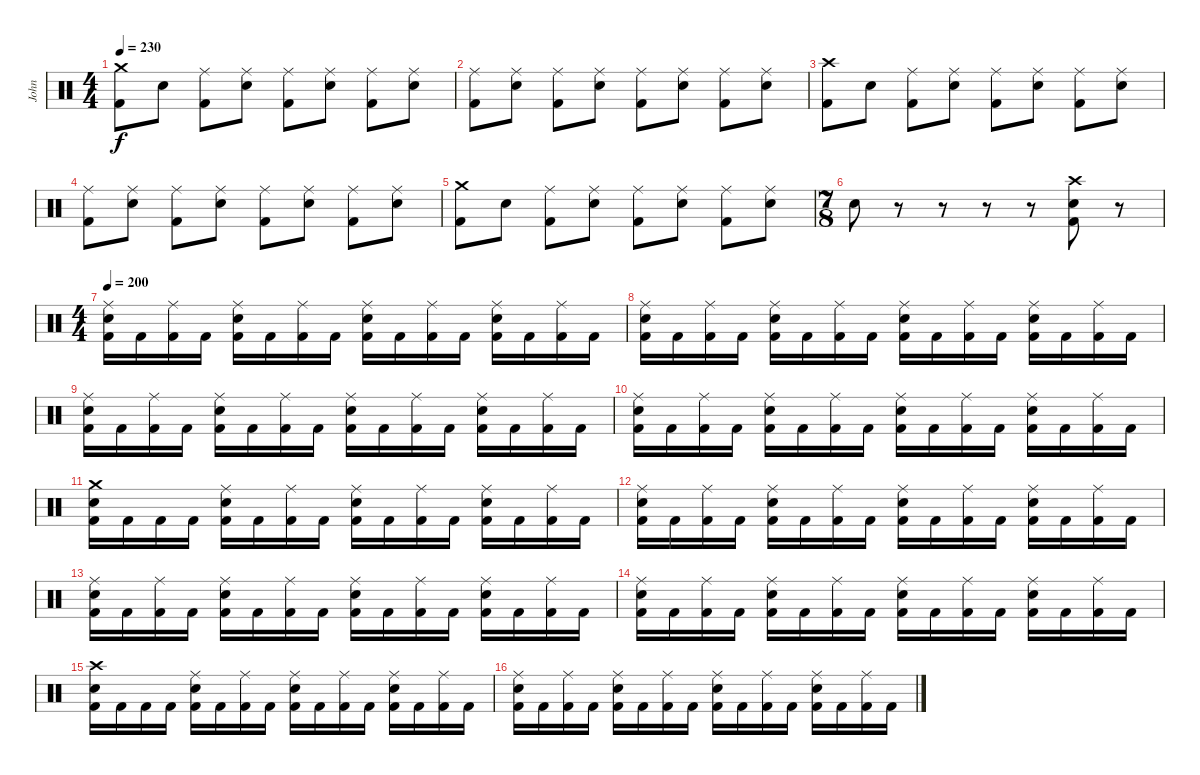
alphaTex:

\track ("John" "John") {instrument percussion}
\staff {score}
\articulation defaults
\ts (4 4)
\tempo 230
\clef neutral
\ks c
("Crash medium (hit)" "Kick (hit) 2").8{dy f} "Electric Snare (hit)".8 ("Ride (middle)" "Kick (hit) 2").8 ("Ride (middle)" "Electric Snare (hit)").8 ("Ride (middle)" "Kick (hit) 2").8 ("Ride (middle)" "Electric Snare (hit)").8 ("Ride (middle)" "Kick (hit) 2").8 ("Ride (middle)" "Electric Snare (hit)").8 |
("Ride (middle)" "Kick (hit) 2").8 ("Ride (middle)" "Electric Snare (hit)").8 ("Ride (middle)" "Kick (hit) 2").8 ("Ride (middle)" "Electric Snare (hit)").8 ("Ride (middle)" "Kick (hit) 2").8 ("Ride (middle)" "Electric Snare (hit)").8 ("Ride (middle)" "Kick (hit) 2").8 ("Ride (middle)" "Electric Snare (hit)").8 |
("Crash high (hit)" "Kick (hit) 2").8 "Electric Snare (hit)".8 ("Ride (middle)" "Kick (hit) 2").8 ("Ride (middle)" "Electric Snare (hit)").8 ("Ride (middle)" "Kick (hit) 2").8 ("Ride (middle)" "Electric Snare (hit)").8 ("Ride (middle)" "Kick (hit) 2").8 ("Ride (middle)" "Electric Snare (hit)").8 |
("Ride (middle)" "Kick (hit) 2").8 ("Ride (middle)" "Electric Snare (hit)").8 ("Ride (middle)" "Kick (hit) 2").8 ("Ride (middle)" "Electric Snare (hit)").8 ("Ride (middle)" "Kick (hit) 2").8 ("Ride (middle)" "Electric Snare (hit)").8 ("Ride (middle)" "Kick (hit) 2").8 ("Ride (middle)" "Electric Snare (hit)").8 |
("Crash medium (hit)" "Kick (hit) 2").8 "Electric Snare (hit)".8 ("Ride (middle)" "Kick (hit) 2").8 ("Ride (middle)" "Electric Snare (hit)").8 ("Ride (middle)" "Kick (hit) 2").8 ("Ride (middle)" "Electric Snare (hit)").8 ("Ride (middle)" "Kick (hit) 2").8 ("Ride (middle)" "Electric Snare (hit)").8 |
\ts (7 8)
"Electric Snare (hit)".8 r.8 r.8 r.8 r.8 ("Crash high (hit)" "Electric Snare (hit)" "Kick (hit) 2").8 r.8 |
\ts (4 4)
\tempo 200
("Ride (middle)" "Electric Snare (hit)" "Kick (hit) 2").16 "Kick (hit) 2".16 ("Ride (middle)" "Kick (hit) 2").16 "Kick (hit) 2".16 ("Ride (middle)" "Electric Snare (hit)" "Kick (hit) 2").16 "Kick (hit) 2".16 ("Ride (middle)" "Kick (hit) 2").16 "Kick (hit) 2".16 ("Ride (middle)" "Electric Snare (hit)" "Kick (hit) 2").16 "Kick (hit) 2".16 ("Ride (middle)" "Kick (hit) 2").16 "Kick (hit) 2".16 ("Ride (middle)" "Electric Snare (hit)" "Kick (hit) 2").16 "Kick (hit) 2".16 ("Ride (middle)" "Kick (hit) 2").16 "Kick (hit) 2".16 |
("Ride (middle)" "Electric Snare (hit)" "Kick (hit) 2").16 "Kick (hit) 2".16 ("Ride (middle)" "Kick (hit) 2").16 "Kick (hit) 2".16 ("Ride (middle)" "Electric Snare (hit)" "Kick (hit) 2").16 "Kick (hit) 2".16 ("Ride (middle)" "Kick (hit) 2").16 "Kick (hit) 2".16 ("Ride (middle)" "Electric Snare (hit)" "Kick (hit) 2").16 "Kick (hit) 2".16 ("Ride (middle)" "Kick (hit) 2").16 "Kick (hit) 2".16 ("Ride (middle)" "Electric Snare (hit)" "Kick (hit) 2").16 "Kick (hit) 2".16 ("Ride (middle)" "Kick (hit) 2").16 "Kick (hit) 2".16 |
("Ride (middle)" "Electric Snare (hit)" "Kick (hit) 2").16 "Kick (hit) 2".16 ("Ride (middle)" "Kick (hit) 2").16 "Kick (hit) 2".16 ("Ride (middle)" "Electric Snare (hit)" "Kick (hit) 2").16 "Kick (hit) 2".16 ("Ride (middle)" "Kick (hit) 2").16 "Kick (hit) 2".16 ("Ride (middle)" "Electric Snare (hit)" "Kick (hit) 2").16 "Kick (hit) 2".16 ("Ride (middle)" "Kick (hit) 2").16 "Kick (hit) 2".16 ("Ride (middle)" "Electric Snare (hit)" "Kick (hit) 2").16 "Kick (hit) 2".16 ("Ride (middle)" "Kick (hit) 2").16 "Kick (hit) 2".16 |
("Ride (middle)" "Electric Snare (hit)" "Kick (hit) 2").16 "Kick (hit) 2".16 ("Ride (middle)" "Kick (hit) 2").16 "Kick (hit) 2".16 ("Ride (middle)" "Electric Snare (hit)" "Kick (hit) 2").16 "Kick (hit) 2".16 ("Ride (middle)" "Kick (hit) 2").16 "Kick (hit) 2".16 ("Ride (middle)" "Electric Snare (hit)" "Kick (hit) 2").16 "Kick (hit) 2".16 ("Ride (middle)" "Kick (hit) 2").16 "Kick (hit) 2".16 ("Ride (middle)" "Electric Snare (hit)" "Kick (hit) 2").16 "Kick (hit) 2".16 ("Ride (middle)" "Kick (hit) 2").16 "Kick (hit) 2".16 |
("Crash medium (hit)" "Electric Snare (hit)" "Kick (hit) 2").16 "Kick (hit) 2".16 "Kick (hit) 2".16 "Kick (hit) 2".16 ("Ride (middle)" "Electric Snare (hit)" "Kick (hit) 2").16 "Kick (hit) 2".16 ("Ride (middle)" "Kick (hit) 2").16 "Kick (hit) 2".16 ("Ride (middle)" "Electric Snare (hit)" "Kick (hit) 2").16 "Kick (hit) 2".16 ("Ride (middle)" "Kick (hit) 2").16 "Kick (hit) 2".16 ("Ride (middle)" "Electric Snare (hit)" "Kick (hit) 2").16 "Kick (hit) 2".16 ("Ride (middle)" "Kick (hit) 2").16 "Kick (hit) 2".16 |
("Ride (middle)" "Electric Snare (hit)" "Kick (hit) 2").16 "Kick (hit) 2".16 ("Ride (middle)" "Kick (hit) 2").16 "Kick (hit) 2".16 ("Ride (middle)" "Electric Snare (hit)" "Kick (hit) 2").16 "Kick (hit) 2".16 ("Ride (middle)" "Kick (hit) 2").16 "Kick (hit) 2".16 ("Ride (middle)" "Electric Snare (hit)" "Kick (hit) 2").16 "Kick (hit) 2".16 ("Ride (middle)" "Kick (hit) 2").16 "Kick (hit) 2".16 ("Ride (middle)" "Electric Snare (hit)" "Kick (hit) 2").16 "Kick (hit) 2".16 ("Ride (middle)" "Kick (hit) 2").16 "Kick (hit) 2".16 |
("Ride (middle)" "Electric Snare (hit)" "Kick (hit) 2").16 "Kick (hit) 2".16 ("Ride (middle)" "Kick (hit) 2").16 "Kick (hit) 2".16 ("Ride (middle)" "Electric Snare (hit)" "Kick (hit) 2").16 "Kick (hit) 2".16 ("Ride (middle)" "Kick (hit) 2").16 "Kick (hit) 2".16 ("Ride (middle)" "Electric Snare (hit)" "Kick (hit) 2").16 "Kick (hit) 2".16 ("Ride (middle)" "Kick (hit) 2").16 "Kick (hit) 2".16 ("Ride (middle)" "Electric Snare (hit)" "Kick (hit) 2").16 "Kick (hit) 2".16 ("Ride (middle)" "Kick (hit) 2").16 "Kick (hit) 2".16 |
("Ride (middle)" "Electric Snare (hit)" "Kick (hit) 2").16 "Kick (hit) 2".16 ("Ride (middle)" "Kick (hit) 2").16 "Kick (hit) 2".16 ("Ride (middle)" "Electric Snare (hit)" "Kick (hit) 2").16 "Kick (hit) 2".16 ("Ride (middle)" "Kick (hit) 2").16 "Kick (hit) 2".16 ("Ride (middle)" "Electric Snare (hit)" "Kick (hit) 2").16 "Kick (hit) 2".16 ("Ride (middle)" "Kick (hit) 2").16 "Kick (hit) 2".16 ("Ride (middle)" "Electric Snare (hit)" "Kick (hit) 2").16 "Kick (hit) 2".16 ("Ride (middle)" "Kick (hit) 2").16 "Kick (hit) 2".16 |
("Crash high (hit)" "Electric Snare (hit)" "Kick (hit) 2").16 "Kick (hit) 2".16 "Kick (hit) 2".16 "Kick (hit) 2".16 ("Ride (middle)" "Electric Snare (hit)" "Kick (hit) 2").16 "Kick (hit) 2".16 ("Ride (middle)" "Kick (hit) 2").16 "Kick (hit) 2".16 ("Ride (middle)" "Electric Snare (hit)" "Kick (hit) 2").16 "Kick (hit) 2".16 ("Ride (middle)" "Kick (hit) 2").16 "Kick (hit) 2".16 ("Ride (middle)" "Electric Snare (hit)" "Kick (hit) 2").16 "Kick (hit) 2".16 ("Ride (middle)" "Kick (hit) 2").16 "Kick (hit) 2".16 |
("Ride (middle)" "Electric Snare (hit)" "Kick (hit) 2").16 "Kick (hit) 2".16 ("Ride (middle)" "Kick (hit) 2").16 "Kick (hit) 2".16 ("Ride (middle)" "Electric Snare (hit)" "Kick (hit) 2").16 "Kick (hit) 2".16 ("Ride (middle)" "Kick (hit) 2").16 "Kick (hit) 2".16 ("Ride (middle)" "Electric Snare (hit)" "Kick (hit) 2").16 "Kick (hit) 2".16 ("Ride (middle)" "Kick (hit) 2").16 "Kick (hit) 2".16 ("Ride (middle)" "Electric Snare (hit)" "Kick (hit) 2").16 "Kick (hit) 2".16 ("Ride (middle)" "Kick (hit) 2").16 "Kick (hit) 2".16
